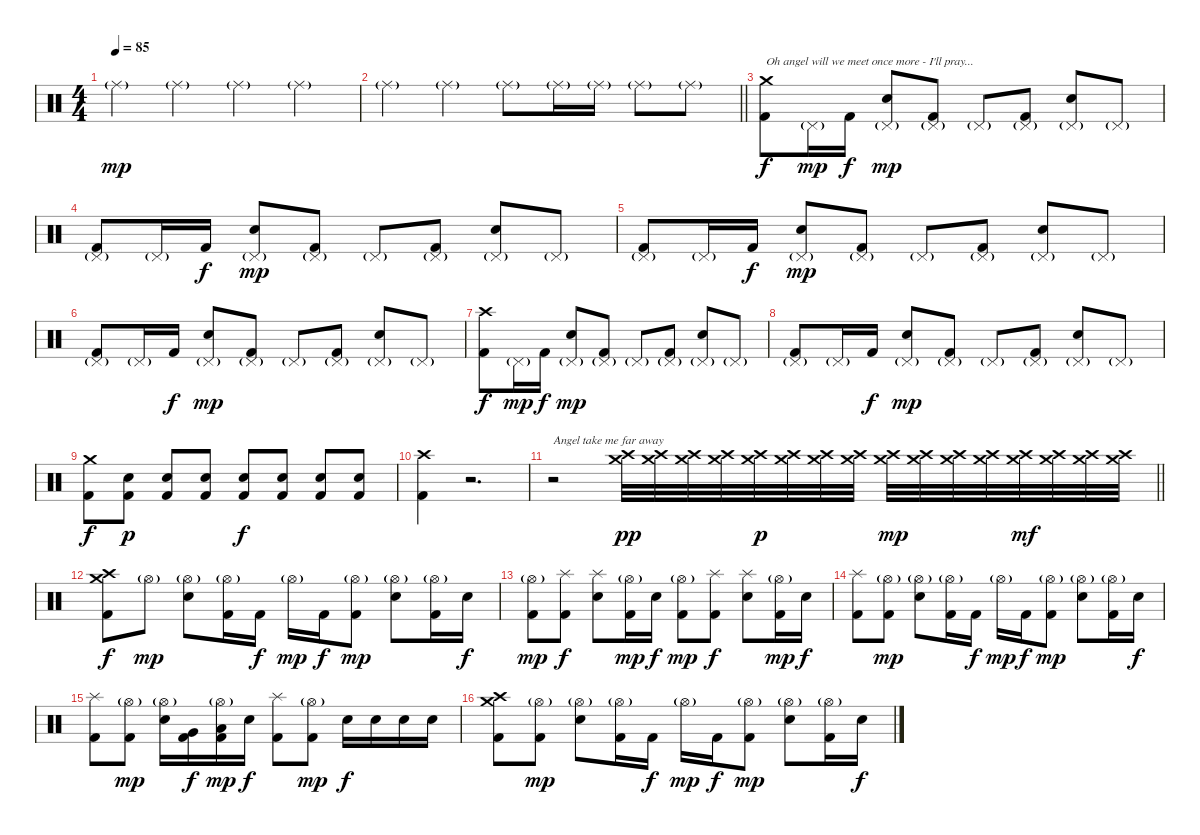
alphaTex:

\track "" {instrument percussion}
\staff {score}
\articulation defaults
\ts (4 4)
\tempo 85
\clef neutral
\ks c "Ride (middle)"{g}.4{dy mp} "Ride (middle)"{g}.4 "Ride (middle)"{g}.4 "Ride (middle)"{g}.4
|
\barLineRight lightlight "Ride (middle)"{g}.4 "Ride (middle)"{g}.4 "Ride (middle)"{g}.8 "Ride (middle)"{g}.16 "Ride (middle)"{g}.16 "Ride (middle)"{g}.8 "Ride (middle)"{g}.8
|
("Crash medium (hit)" "Kick (hit) 2").8{txt "Oh angel will we meet once more - I'll pray..." dy f} "Pedal Hi-Hat (hit)"{g}.16{dy mp} "Kick (hit) 2".16{dy f} ("Pedal Hi-Hat (hit)"{g} "Electric Snare (hit)").8{dy mp} ("Pedal Hi-Hat (hit)"{g} "Kick (hit) 2").8 "Pedal Hi-Hat (hit)"{g}.8 ("Pedal Hi-Hat (hit)"{g} "Kick (hit) 2").8 ("Pedal Hi-Hat (hit)"{g} "Electric Snare (hit)").8 "Pedal Hi-Hat (hit)"{g}.8 |
("Pedal Hi-Hat (hit)"{g} "Kick (hit) 2").8 "Pedal Hi-Hat (hit)"{g}.16 "Kick (hit) 2".16{dy f} ("Pedal Hi-Hat (hit)"{g} "Electric Snare (hit)").8{dy mp} ("Pedal Hi-Hat (hit)"{g} "Kick (hit) 2").8 "Pedal Hi-Hat (hit)"{g}.8 ("Pedal Hi-Hat (hit)"{g} "Kick (hit) 2").8 ("Pedal Hi-Hat (hit)"{g} "Electric Snare (hit)").8 "Pedal Hi-Hat (hit)"{g}.8 |
("Pedal Hi-Hat (hit)"{g} "Kick (hit) 2").8 "Pedal Hi-Hat (hit)"{g}.16 "Kick (hit) 2".16{dy f} ("Pedal Hi-Hat (hit)"{g} "Electric Snare (hit)").8{dy mp} ("Pedal Hi-Hat (hit)"{g} "Kick (hit) 2").8 "Pedal Hi-Hat (hit)"{g}.8 ("Pedal Hi-Hat (hit)"{g} "Kick (hit) 2").8 ("Pedal Hi-Hat (hit)"{g} "Electric Snare (hit)").8 "Pedal Hi-Hat (hit)"{g}.8 |
("Pedal Hi-Hat (hit)"{g} "Kick (hit) 2").8 "Pedal Hi-Hat (hit)"{g}.16 "Kick (hit) 2".16{dy f} ("Pedal Hi-Hat (hit)"{g} "Electric Snare (hit)").8{dy mp} ("Pedal Hi-Hat (hit)"{g} "Kick (hit) 2").8 "Pedal Hi-Hat (hit)"{g}.8 ("Pedal Hi-Hat (hit)"{g} "Kick (hit) 2").8 ("Pedal Hi-Hat (hit)"{g} "Electric Snare (hit)").8 "Pedal Hi-Hat (hit)"{g}.8 |
("Crash high (hit)" "Kick (hit) 2").8{dy f} "Pedal Hi-Hat (hit)"{g}.16{dy mp} "Kick (hit) 2".16{dy f} ("Pedal Hi-Hat (hit)"{g} "Electric Snare (hit)").8{dy mp} ("Pedal Hi-Hat (hit)"{g} "Kick (hit) 2").8 "Pedal Hi-Hat (hit)"{g}.8 ("Pedal Hi-Hat (hit)"{g} "Kick (hit) 2").8 ("Pedal Hi-Hat (hit)"{g} "Electric Snare (hit)").8 "Pedal Hi-Hat (hit)"{g}.8 |
("Pedal Hi-Hat (hit)"{g} "Kick (hit) 2").8 "Pedal Hi-Hat (hit)"{g}.16 "Kick (hit) 2".16{dy f} ("Pedal Hi-Hat (hit)"{g} "Electric Snare (hit)").8{dy mp} ("Pedal Hi-Hat (hit)"{g} "Kick (hit) 2").8 "Pedal Hi-Hat (hit)"{g}.8 ("Pedal Hi-Hat (hit)"{g} "Kick (hit) 2").8 ("Pedal Hi-Hat (hit)"{g} "Electric Snare (hit)").8 "Pedal Hi-Hat (hit)"{g}.8 |
("Crash medium (hit)" "Kick (hit) 2").8{dy f} ("Electric Snare (hit)" "Kick (hit) 2").8{dy p} ("Electric Snare (hit)" "Kick (hit) 2").8 ("Electric Snare (hit)" "Kick (hit) 2").8 ("Electric Snare (hit)" "Kick (hit) 2").8{dy f} ("Electric Snare (hit)" "Kick (hit) 2").8 ("Electric Snare (hit)" "Kick (hit) 2").8 ("Electric Snare (hit)" "Kick (hit) 2").8 |
("Crash high (hit)" "Kick (hit) 2").4 r.2{d} |
\barLineRight lightlight
r.2{txt "Angel take me far away"} ("Crash high (hit)" "Crash medium (hit)").32{dy pp} ("Crash high (hit)" "Crash medium (hit)").32 ("Crash high (hit)" "Crash medium (hit)").32 ("Crash high (hit)" "Crash medium (hit)").32 ("Crash high (hit)" "Crash medium (hit)").32{dy p} ("Crash high (hit)" "Crash medium (hit)").32 ("Crash high (hit)" "Crash medium (hit)").32 ("Crash high (hit)" "Crash medium (hit)").32 ("Crash high (hit)" "Crash medium (hit)").32{dy mp} ("Crash high (hit)" "Crash medium (hit)").32 ("Crash high (hit)" "Crash medium (hit)").32 ("Crash high (hit)" "Crash medium (hit)").32 ("Crash high (hit)" "Crash medium (hit)").32{dy mf} ("Crash high (hit)" "Crash medium (hit)").32 ("Crash high (hit)" "Crash medium (hit)").32 ("Crash high (hit)" "Crash medium (hit)").32 |
("Crash high (hit)" "Crash medium (hit)" "Kick (hit) 2").8{dy f} "Hi-Hat (open)"{g}.8{dy mp} ("Hi-Hat (open)"{g} "Electric Snare (hit)").8 ("Hi-Hat (open)"{g} "Kick (hit) 2").16 "Kick (hit) 2".16{dy f} "Hi-Hat (open)"{g}.16{dy mp} "Kick (hit) 2".16{dy f} ("Hi-Hat (open)"{g} "Kick (hit) 2").8{dy mp} ("Hi-Hat (open)"{g} "Electric Snare (hit)").8 ("Hi-Hat (open)"{g} "Kick (hit) 2").16 "Electric Snare (hit)".16{dy f} |
("Hi-Hat (open)"{g} "Kick (hit) 2").8{dy mp} ("Splash (hit)" "Kick (hit) 2").8{dy f} ("Splash (hit)" "Electric Snare (hit)").8 ("Hi-Hat (open)"{g} "Kick (hit) 2").16{dy mp} "Electric Snare (hit)".16{dy f} ("Hi-Hat (open)"{g} "Kick (hit) 2").8{dy mp} ("Splash (hit)" "Kick (hit) 2").8{dy f} ("Splash (hit)" "Electric Snare (hit)").8 ("Hi-Hat (open)"{g} "Kick (hit) 2").16{dy mp} "Electric Snare (hit)".16{dy f} |
("Splash (hit)" "Kick (hit) 2").8 ("Hi-Hat (open)"{g} "Kick (hit) 2").8{dy mp} ("Hi-Hat (open)"{g} "Electric Snare (hit)").8 ("Hi-Hat (open)"{g} "Kick (hit) 2").16 "Kick (hit) 2".16{dy f} "Hi-Hat (open)"{g}.16{dy mp} "Kick (hit) 2".16{dy f} ("Hi-Hat (open)"{g} "Kick (hit) 2").8{dy mp} ("Hi-Hat (open)"{g} "Electric Snare (hit)").8 ("Hi-Hat (open)"{g} "Kick (hit) 2").16 "Electric Snare (hit)".16{dy f} |
("Splash (hit)" "Kick (hit) 2").8 ("Hi-Hat (open)"{g} "Kick (hit) 2").8{dy mp} ("Hi-Hat (open)"{g} "Electric Snare (hit)").16 ("Very Low Tom (hit)" "Kick (hit) 2").16{dy f} ("Hi-Hat (open)"{g} "Low Floor Tom (hit)" "Kick (hit) 2").16{dy mp} "Electric Snare (hit)".16{dy f} ("Splash (hit)" "Kick (hit) 2").8 ("Hi-Hat (open)"{g} "Kick (hit) 2").8{dy mp} "Electric Snare (hit)".16{dy f} "Electric Snare (hit)".16 "Electric Snare (hit)".16 "Electric Snare (hit)".16 |
("Crash high (hit)" "Crash medium (hit)" "Kick (hit) 2").8 ("Hi-Hat (open)"{g} "Kick (hit) 2").8{dy mp} ("Hi-Hat (open)"{g} "Electric Snare (hit)").8 ("Hi-Hat (open)"{g} "Kick (hit) 2").16 "Kick (hit) 2".16{dy f} "Hi-Hat (open)"{g}.16{dy mp} "Kick (hit) 2".16{dy f} ("Hi-Hat (open)"{g} "Kick (hit) 2").8{dy mp} ("Hi-Hat (open)"{g} "Electric Snare (hit)").8 ("Hi-Hat (open)"{g} "Kick (hit) 2").16 "Electric Snare (hit)".16{dy f}
